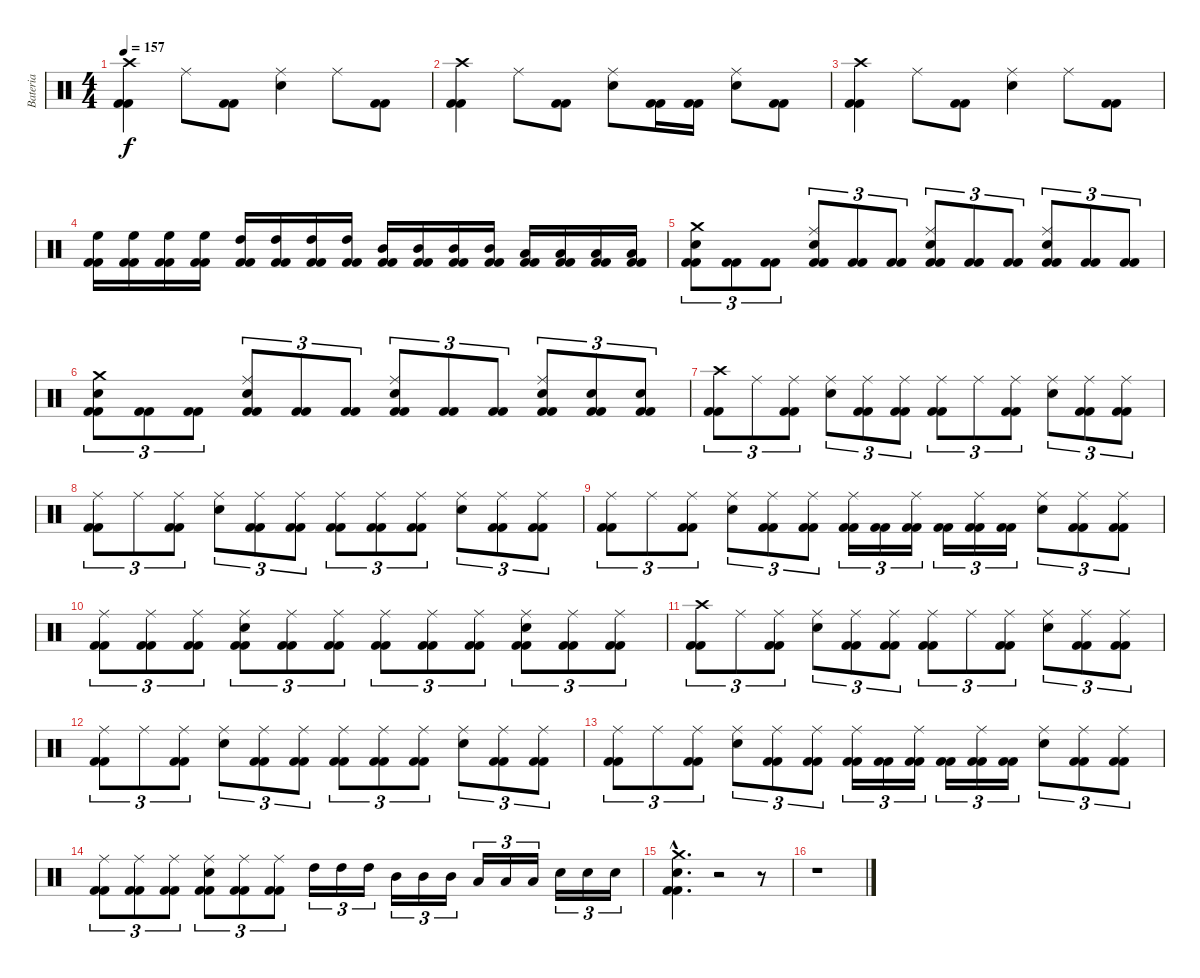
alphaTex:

\track ("Bateria" "Bateria") {instrument percussion}
\staff {score}
\articulation defaults
\ts (4 4)
\tempo 157
\clef neutral
\ks c
("Kick (hit) 2" "Kick (hit) 2" "Crash high (hit)").4{dy f} "Ride (middle)".8 ("Kick (hit) 2" "Kick (hit) 2").8 ("Snare (hit) 2" "Ride (middle)").4 "Ride (middle)".8 ("Kick (hit) 2" "Kick (hit) 2").8 |
("Kick (hit) 2" "Kick (hit) 2" "Crash high (hit)").4 "Ride (middle)".8 ("Kick (hit) 2" "Kick (hit) 2").8 ("Snare (hit) 2" "Ride (middle)").8 ("Kick (hit) 2" "Kick (hit) 2").16 ("Kick (hit) 2" "Kick (hit) 2").16 ("Snare (hit) 2" "Ride (middle)").8 ("Kick (hit) 2" "Kick (hit) 2").8 |
("Kick (hit) 2" "Kick (hit) 2" "Crash high (hit)").4 "Ride (middle)".8 ("Kick (hit) 2" "Kick (hit) 2").8 ("Snare (hit) 2" "Ride (middle)").4 "Ride (middle)".8 ("Kick (hit) 2" "Kick (hit) 2").8 |
("Kick (hit) 2" "Kick (hit) 2" "High Floor Tom (hit)").16 ("Kick (hit) 2" "Kick (hit) 2" "High Floor Tom (hit)").16 ("Kick (hit) 2" "Kick (hit) 2" "High Floor Tom (hit)").16 ("Kick (hit) 2" "Kick (hit) 2" "High Floor Tom (hit)").16 ("Kick (hit) 2" "Kick (hit) 2" "High Tom (hit)").16 ("Kick (hit) 2" "Kick (hit) 2" "High Tom (hit)").16 ("Kick (hit) 2" "Kick (hit) 2" "High Tom (hit)").16 ("Kick (hit) 2" "Kick (hit) 2" "High Tom (hit)").16 ("Kick (hit) 2" "Kick (hit) 2" "Mid Tom (hit)").16 ("Kick (hit) 2" "Kick (hit) 2" "Mid Tom (hit)").16 ("Kick (hit) 2" "Kick (hit) 2" "Mid Tom (hit)").16 ("Kick (hit) 2" "Kick (hit) 2" "Mid Tom (hit)").16 ("Kick (hit) 2" "Kick (hit) 2" "Low Tom (hit)").16 ("Kick (hit) 2" "Kick (hit) 2" "Low Tom (hit)").16 ("Kick (hit) 2" "Kick (hit) 2" "Low Tom (hit)").16 ("Kick (hit) 2" "Kick (hit) 2" "Low Tom (hit)").16 |
("Kick (hit) 2" "Kick (hit) 2" "Snare (hit) 2" "Crash medium (hit)").8{tu (3 2)} ("Kick (hit) 2" "Kick (hit) 2").8{tu (3 2)} ("Kick (hit) 2" "Kick (hit) 2").8{tu (3 2)} ("Kick (hit) 2" "Kick (hit) 2" "Snare (hit) 2" "Ride (middle)").8{tu (3 2)} ("Kick (hit) 2" "Kick (hit) 2").8{tu (3 2)} ("Kick (hit) 2" "Kick (hit) 2").8{tu (3 2)} ("Kick (hit) 2" "Kick (hit) 2" "Snare (hit) 2" "Ride (middle)").8{tu (3 2)} ("Kick (hit) 2" "Kick (hit) 2").8{tu (3 2)} ("Kick (hit) 2" "Kick (hit) 2").8{tu (3 2)} ("Kick (hit) 2" "Kick (hit) 2" "Snare (hit) 2" "Ride (middle)").8{tu (3 2)} ("Kick (hit) 2" "Kick (hit) 2").8{tu (3 2)} ("Kick (hit) 2" "Kick (hit) 2").8{tu (3 2)} |
("Kick (hit) 2" "Kick (hit) 2" "Snare (hit) 2" "Crash medium (hit)").8{tu (3 2)} ("Kick (hit) 2" "Kick (hit) 2").8{tu (3 2)} ("Kick (hit) 2" "Kick (hit) 2").8{tu (3 2)} ("Kick (hit) 2" "Kick (hit) 2" "Snare (hit) 2" "Ride (middle)").8{tu (3 2)} ("Kick (hit) 2" "Kick (hit) 2").8{tu (3 2)} ("Kick (hit) 2" "Kick (hit) 2").8{tu (3 2)} ("Kick (hit) 2" "Kick (hit) 2" "Snare (hit) 2" "Ride (middle)").8{tu (3 2)} ("Kick (hit) 2" "Kick (hit) 2").8{tu (3 2)} ("Kick (hit) 2" "Kick (hit) 2").8{tu (3 2)} ("Kick (hit) 2" "Kick (hit) 2" "Snare (hit) 2" "Ride (middle)").8{tu (3 2)} ("Kick (hit) 2" "Kick (hit) 2" "Snare (hit) 2").8{tu (3 2)} ("Kick (hit) 2" "Kick (hit) 2" "Snare (hit) 2").8{tu (3 2)} |
("Kick (hit) 2" "Crash high (hit)" "Kick (hit) 2").8{tu (3 2)} "Ride (middle)".8{tu (3 2)} ("Kick (hit) 2" "Ride (middle)" "Kick (hit) 2").8{tu (3 2)} ("Ride (middle)" "Snare (hit) 2").8{tu (3 2)} ("Kick (hit) 2" "Ride (middle)" "Kick (hit) 2").8{tu (3 2)} ("Kick (hit) 2" "Ride (middle)" "Kick (hit) 2").8{tu (3 2)} ("Kick (hit) 2" "Ride (middle)" "Kick (hit) 2").8{tu (3 2)} "Ride (middle)".8{tu (3 2)} ("Kick (hit) 2" "Ride (middle)" "Kick (hit) 2").8{tu (3 2)} ("Ride (middle)" "Snare (hit) 2").8{tu (3 2)} ("Kick (hit) 2" "Ride (middle)" "Kick (hit) 2").8{tu (3 2)} ("Kick (hit) 2" "Ride (middle)" "Kick (hit) 2").8{tu (3 2)} |
("Kick (hit) 2" "Ride (middle)" "Kick (hit) 2").8{tu (3 2)} "Ride (middle)".8{tu (3 2)} ("Kick (hit) 2" "Ride (middle)" "Kick (hit) 2").8{tu (3 2)} ("Ride (middle)" "Snare (hit) 2").8{tu (3 2)} ("Kick (hit) 2" "Ride (middle)" "Kick (hit) 2").8{tu (3 2)} ("Kick (hit) 2" "Ride (middle)" "Kick (hit) 2").8{tu (3 2)} ("Kick (hit) 2" "Ride (middle)" "Kick (hit) 2").8{tu (3 2)} ("Kick (hit) 2" "Ride (middle)" "Kick (hit) 2").8{tu (3 2)} ("Kick (hit) 2" "Ride (middle)" "Kick (hit) 2").8{tu (3 2)} ("Ride (middle)" "Snare (hit) 2").8{tu (3 2)} ("Kick (hit) 2" "Ride (middle)" "Kick (hit) 2").8{tu (3 2)} ("Kick (hit) 2" "Ride (middle)" "Kick (hit) 2").8{tu (3 2)} |
("Kick (hit) 2" "Ride (middle)" "Kick (hit) 2").8{tu (3 2)} "Ride (middle)".8{tu (3 2)} ("Kick (hit) 2" "Ride (middle)" "Kick (hit) 2").8{tu (3 2)} ("Ride (middle)" "Snare (hit) 2").8{tu (3 2)} ("Kick (hit) 2" "Ride (middle)" "Kick (hit) 2").8{tu (3 2)} ("Kick (hit) 2" "Ride (middle)" "Kick (hit) 2").8{tu (3 2)} ("Kick (hit) 2" "Ride (middle)" "Kick (hit) 2").16{tu (3 2)} ("Kick (hit) 2" "Kick (hit) 2").16{tu (3 2)} ("Kick (hit) 2" "Ride (middle)" "Kick (hit) 2").16{tu (3 2)} ("Kick (hit) 2" "Kick (hit) 2").16{tu (3 2)} ("Kick (hit) 2" "Ride (middle)" "Kick (hit) 2").16{tu (3 2)} ("Kick (hit) 2" "Kick (hit) 2").16{tu (3 2)} ("Ride (middle)" "Snare (hit) 2").8{tu (3 2)} ("Kick (hit) 2" "Ride (middle)" "Kick (hit) 2").8{tu (3 2)} ("Kick (hit) 2" "Ride (middle)" "Kick (hit) 2").8{tu (3 2)} |
("Kick (hit) 2" "Ride (middle)" "Kick (hit) 2").8{tu (3 2)} ("Kick (hit) 2" "Ride (middle)" "Kick (hit) 2").8{tu (3 2)} ("Kick (hit) 2" "Ride (middle)" "Kick (hit) 2").8{tu (3 2)} ("Kick (hit) 2" "Ride (middle)" "Snare (hit) 2" "Kick (hit) 2").8{tu (3 2)} ("Kick (hit) 2" "Ride (middle)" "Kick (hit) 2").8{tu (3 2)} ("Kick (hit) 2" "Ride (middle)" "Kick (hit) 2").8{tu (3 2)} ("Kick (hit) 2" "Ride (middle)" "Kick (hit) 2").8{tu (3 2)} ("Kick (hit) 2" "Ride (middle)" "Kick (hit) 2").8{tu (3 2)} ("Kick (hit) 2" "Ride (middle)" "Kick (hit) 2").8{tu (3 2)} ("Kick (hit) 2" "Ride (middle)" "Snare (hit) 2" "Kick (hit) 2").8{tu (3 2)} ("Kick (hit) 2" "Ride (middle)" "Kick (hit) 2").8{tu (3 2)} ("Kick (hit) 2" "Ride (middle)" "Kick (hit) 2").8{tu (3 2)} |
("Kick (hit) 2" "Crash high (hit)" "Kick (hit) 2").8{tu (3 2)} "Ride (middle)".8{tu (3 2)} ("Kick (hit) 2" "Ride (middle)" "Kick (hit) 2").8{tu (3 2)} ("Ride (middle)" "Snare (hit) 2").8{tu (3 2)} ("Kick (hit) 2" "Ride (middle)" "Kick (hit) 2").8{tu (3 2)} ("Kick (hit) 2" "Ride (middle)" "Kick (hit) 2").8{tu (3 2)} ("Kick (hit) 2" "Ride (middle)" "Kick (hit) 2").8{tu (3 2)} "Ride (middle)".8{tu (3 2)} ("Kick (hit) 2" "Ride (middle)" "Kick (hit) 2").8{tu (3 2)} ("Ride (middle)" "Snare (hit) 2").8{tu (3 2)} ("Kick (hit) 2" "Ride (middle)" "Kick (hit) 2").8{tu (3 2)} ("Kick (hit) 2" "Ride (middle)" "Kick (hit) 2").8{tu (3 2)} |
("Kick (hit) 2" "Ride (middle)" "Kick (hit) 2").8{tu (3 2)} "Ride (middle)".8{tu (3 2)} ("Kick (hit) 2" "Ride (middle)" "Kick (hit) 2").8{tu (3 2)} ("Ride (middle)" "Snare (hit) 2").8{tu (3 2)} ("Kick (hit) 2" "Ride (middle)" "Kick (hit) 2").8{tu (3 2)} ("Kick (hit) 2" "Ride (middle)" "Kick (hit) 2").8{tu (3 2)} ("Kick (hit) 2" "Ride (middle)" "Kick (hit) 2").8{tu (3 2)} ("Kick (hit) 2" "Ride (middle)" "Kick (hit) 2").8{tu (3 2)} ("Kick (hit) 2" "Ride (middle)" "Kick (hit) 2").8{tu (3 2)} ("Ride (middle)" "Snare (hit) 2").8{tu (3 2)} ("Kick (hit) 2" "Ride (middle)" "Kick (hit) 2").8{tu (3 2)} ("Kick (hit) 2" "Ride (middle)" "Kick (hit) 2").8{tu (3 2)} |
("Kick (hit) 2" "Ride (middle)" "Kick (hit) 2").8{tu (3 2)} "Ride (middle)".8{tu (3 2)} ("Kick (hit) 2" "Ride (middle)" "Kick (hit) 2").8{tu (3 2)} ("Ride (middle)" "Snare (hit) 2").8{tu (3 2)} ("Kick (hit) 2" "Ride (middle)" "Kick (hit) 2").8{tu (3 2)} ("Kick (hit) 2" "Ride (middle)" "Kick (hit) 2").8{tu (3 2)} ("Kick (hit) 2" "Ride (middle)" "Kick (hit) 2").16{tu (3 2)} ("Kick (hit) 2" "Kick (hit) 2").16{tu (3 2)} ("Kick (hit) 2" "Ride (middle)" "Kick (hit) 2").16{tu (3 2)} ("Kick (hit) 2" "Kick (hit) 2").16{tu (3 2)} ("Kick (hit) 2" "Ride (middle)" "Kick (hit) 2").16{tu (3 2)} ("Kick (hit) 2" "Kick (hit) 2").16{tu (3 2)} ("Ride (middle)" "Snare (hit) 2").8{tu (3 2)} ("Kick (hit) 2" "Ride (middle)" "Kick (hit) 2").8{tu (3 2)} ("Kick (hit) 2" "Ride (middle)" "Kick (hit) 2").8{tu (3 2)} |
("Kick (hit) 2" "Ride (middle)" "Kick (hit) 2").8{tu (3 2)} ("Kick (hit) 2" "Ride (middle)" "Kick (hit) 2").8{tu (3 2)} ("Kick (hit) 2" "Ride (middle)" "Kick (hit) 2").8{tu (3 2)} ("Kick (hit) 2" "Ride (middle)" "Snare (hit) 2" "Kick (hit) 2").8{tu (3 2)} ("Kick (hit) 2" "Ride (middle)" "Kick (hit) 2").8{tu (3 2)} ("Kick (hit) 2" "Ride (middle)" "Kick (hit) 2").8{tu (3 2)} "High Tom (hit)".16{tu (3 2)} "High Tom (hit)".16{tu (3 2)} "High Tom (hit)".16{tu (3 2)} "Mid Tom (hit)".16{tu (3 2)} "Mid Tom (hit)".16{tu (3 2)} "Mid Tom (hit)".16{tu (3 2)} "Low Tom (hit)".16{tu (3 2)} "Low Tom (hit)".16{tu (3 2)} "Low Tom (hit)".16{tu (3 2)} "Snare (hit) 2".16{tu (3 2)} "Snare (hit) 2".16{tu (3 2)} "Snare (hit) 2".16{tu (3 2)} |
("Kick (hit) 2"{hac} "Kick (hit) 2"{hac} "Snare (hit) 2"{hac} "Crash medium (hit)"{hac}).4{d} r.2 r.8 |
r.1
